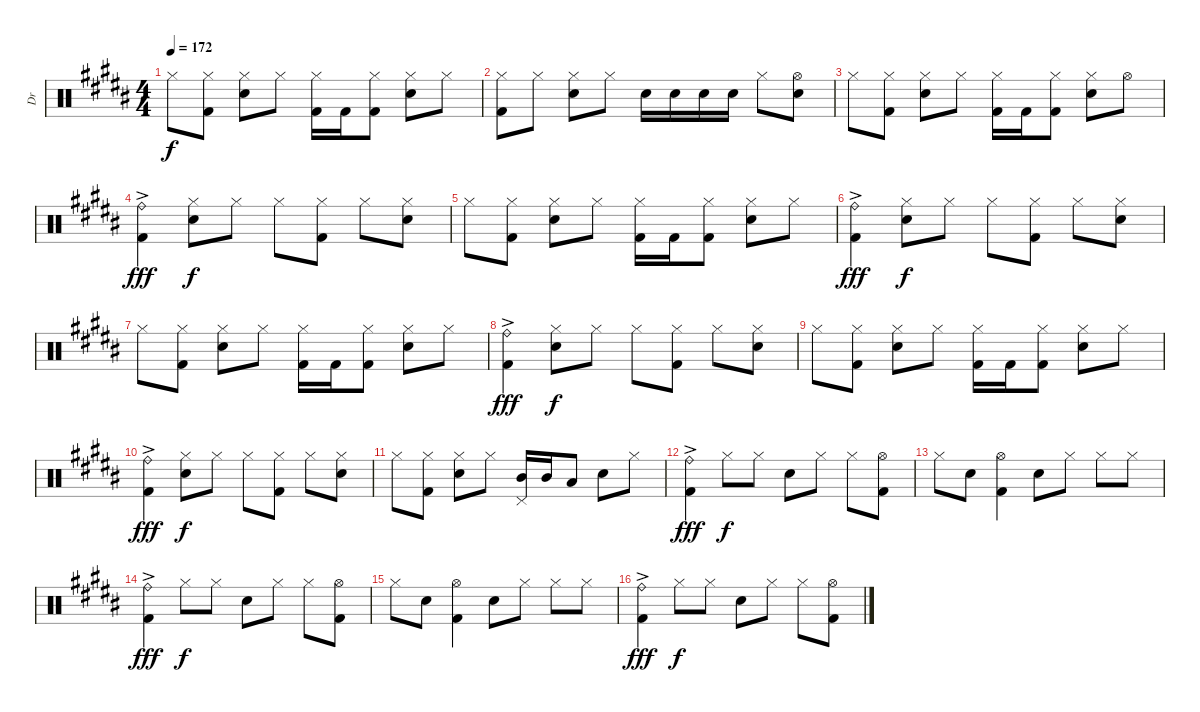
\track ("Dr" "Dr") {instrument percussion}
\staff {score}
\articulation defaults
\ts (4 4)
\tempo 172
\clef neutral
\ks b "Hi-Hat (closed)".8{dy f}
("Hi-Hat (closed)" "Kick (hit) 2").8 ("Hi-Hat (closed)" "Electric Snare (hit)").8 "Hi-Hat (closed)".8 ("Hi-Hat (closed)" "Kick (hit) 2").16 "Kick (hit) 2".16 ("Hi-Hat (closed)" "Kick (hit) 2").8 ("Hi-Hat (closed)" "Electric Snare (hit)").8 "Hi-Hat (closed)".8 |
("Hi-Hat (closed)" "Kick (hit) 2").8 "Hi-Hat (closed)".8 ("Hi-Hat (closed)" "Electric Snare (hit)").8 "Hi-Hat (closed)".8 "Electric Snare (hit)".16 "Electric Snare (hit)".16 "Electric Snare (hit)".16 "Electric Snare (hit)".16 "Hi-Hat (closed)".8 ("Hi-Hat (open)" "Electric Snare (hit)").8 |
"Hi-Hat (closed)".8 ("Hi-Hat (closed)" "Kick (hit) 2").8 ("Hi-Hat (closed)" "Electric Snare (hit)").8 "Hi-Hat (closed)".8 ("Hi-Hat (closed)" "Kick (hit) 2").16 "Kick (hit) 2".16 ("Hi-Hat (closed)" "Kick (hit) 2").8 ("Hi-Hat (closed)" "Electric Snare (hit)").8 "Hi-Hat (open)".8 |
("Ride (bell)"{ac} "Kick (hit) 2"{ac}).4{dy fff} ("Hi-Hat (closed)" "Electric Snare (hit)").8{dy f} "Hi-Hat (closed)".8 "Hi-Hat (closed)".8 ("Hi-Hat (closed)" "Kick (hit) 2").8 "Hi-Hat (closed)".8 ("Hi-Hat (closed)" "Electric Snare (hit)").8 |
"Hi-Hat (closed)".8 ("Hi-Hat (closed)" "Kick (hit) 2").8 ("Hi-Hat (closed)" "Electric Snare (hit)").8 "Hi-Hat (closed)".8 ("Hi-Hat (closed)" "Kick (hit) 2").16 "Kick (hit) 2".16 ("Hi-Hat (closed)" "Kick (hit) 2").8 ("Hi-Hat (closed)" "Electric Snare (hit)").8 "Hi-Hat (closed)".8 |
("Ride (bell)"{ac} "Kick (hit) 2"{ac}).4{dy fff} ("Hi-Hat (closed)" "Electric Snare (hit)").8{dy f} "Hi-Hat (closed)".8 "Hi-Hat (closed)".8 ("Hi-Hat (closed)" "Kick (hit) 2").8 "Hi-Hat (closed)".8 ("Hi-Hat (closed)" "Electric Snare (hit)").8 |
"Hi-Hat (closed)".8 ("Hi-Hat (closed)" "Kick (hit) 2").8 ("Hi-Hat (closed)" "Electric Snare (hit)").8 "Hi-Hat (closed)".8 ("Hi-Hat (closed)" "Kick (hit) 2").16 "Kick (hit) 2".16 ("Hi-Hat (closed)" "Kick (hit) 2").8 ("Hi-Hat (closed)" "Electric Snare (hit)").8 "Hi-Hat (closed)".8 |
("Ride (bell)"{ac} "Kick (hit) 2"{ac}).4{dy fff} ("Hi-Hat (closed)" "Electric Snare (hit)").8{dy f} "Hi-Hat (closed)".8 "Hi-Hat (closed)".8 ("Hi-Hat (closed)" "Kick (hit) 2").8 "Hi-Hat (closed)".8 ("Hi-Hat (closed)" "Electric Snare (hit)").8 |
"Hi-Hat (closed)".8 ("Hi-Hat (closed)" "Kick (hit) 2").8 ("Hi-Hat (closed)" "Electric Snare (hit)").8 "Hi-Hat (closed)".8 ("Hi-Hat (closed)" "Kick (hit) 2").16 "Kick (hit) 2".16 ("Hi-Hat (closed)" "Kick (hit) 2").8 ("Hi-Hat (closed)" "Electric Snare (hit)").8 "Hi-Hat (closed)".8 |
("Ride (bell)"{ac} "Kick (hit) 2"{ac}).4{dy fff} ("Hi-Hat (closed)" "Electric Snare (hit)").8{dy f} "Hi-Hat (closed)".8 "Hi-Hat (closed)".8 ("Hi-Hat (closed)" "Kick (hit) 2").8 "Hi-Hat (closed)".8 ("Hi-Hat (closed)" "Electric Snare (hit)").8 |
"Hi-Hat (closed)".8 ("Hi-Hat (closed)" "Kick (hit) 2").8 ("Hi-Hat (closed)" "Electric Snare (hit)").8 "Hi-Hat (closed)".8 ("Mid Tom (hit)" "Pedal Hi-Hat (hit)").16 "Mid Tom (hit)".16 "Low Tom (hit)".8 "Electric Snare (hit)".8 "Hi-Hat (closed)".8 |
("Ride (bell)"{ac} "Kick (hit) 2"{ac}).4{dy fff} "Hi-Hat (closed)".8{dy f} "Hi-Hat (closed)".8 "Electric Snare (hit)".8 "Hi-Hat (closed)".8 "Hi-Hat (closed)".8 ("Hi-Hat (open)" "Kick (hit) 2").8 |
"Hi-Hat (closed)".8 "Electric Snare (hit)".8 ("Hi-Hat (open)" "Kick (hit) 2").4 "Electric Snare (hit)".8 "Hi-Hat (closed)".8 "Hi-Hat (closed)".8 "Hi-Hat (closed)".8 |
("Ride (bell)"{ac} "Kick (hit) 2"{ac}).4{dy fff} "Hi-Hat (closed)".8{dy f} "Hi-Hat (closed)".8 "Electric Snare (hit)".8 "Hi-Hat (closed)".8 "Hi-Hat (closed)".8 ("Hi-Hat (open)" "Kick (hit) 2").8 |
"Hi-Hat (closed)".8 "Electric Snare (hit)".8 ("Hi-Hat (open)" "Kick (hit) 2").4 "Electric Snare (hit)".8 "Hi-Hat (closed)".8 "Hi-Hat (closed)".8 "Hi-Hat (closed)".8 |
("Ride (bell)"{ac} "Kick (hit) 2"{ac}).4{dy fff} "Hi-Hat (closed)".8{dy f} "Hi-Hat (closed)".8 "Electric Snare (hit)".8 "Hi-Hat (closed)".8 "Hi-Hat (closed)".8 ("Hi-Hat (open)" "Kick (hit) 2").8
